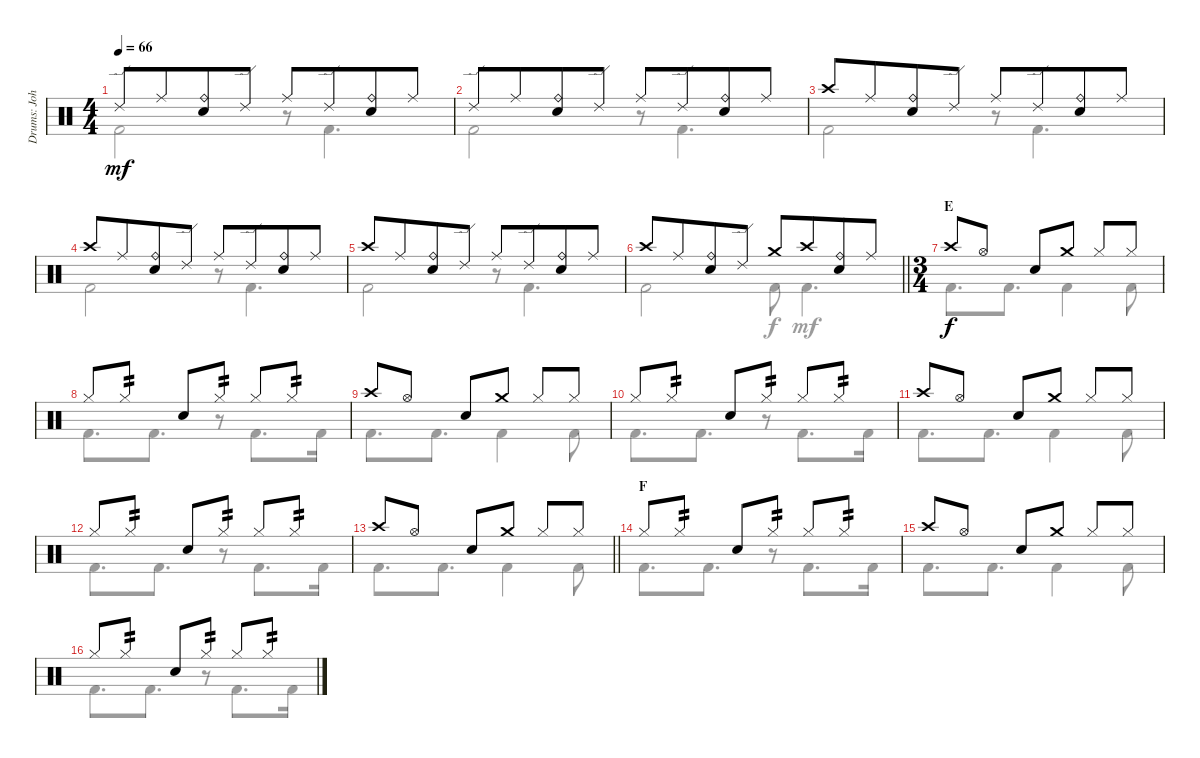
\track ("Drums: John" "Drums: Joh") {instrument percussion}
\staff {score}
\articulation defaults
\voice
\ts (4 4)
\tempo 66
\clef neutral
\ks c "Ride (edge) 2".8{dy mf} "Ride (middle)".8{beam merge}
("Ride (bell)" "Electric Snare (hit)").8 "Ride (edge) 2".8 "Ride (middle)".8 "Ride (edge) 2".8{beam merge} ("Ride (bell)" "Electric Snare (hit)").8 "Ride (middle)".8 |
"Ride (edge) 2".8 "Ride (middle)".8{beam merge} ("Ride (bell)" "Electric Snare (hit)").8 "Ride (edge) 2".8 "Ride (middle)".8 "Ride (edge) 2".8{beam merge} ("Ride (bell)" "Electric Snare (hit)").8 "Ride (middle)".8 |
"Crash high (hit)".8 "Ride (middle)".8{beam merge} ("Ride (bell)" "Electric Snare (hit)").8 "Ride (edge) 2".8 "Ride (middle)".8 "Ride (edge) 2".8{beam merge} ("Ride (bell)" "Electric Snare (hit)").8 "Ride (middle)".8 |
"Crash high (hit)".8 "Ride (middle)".8{beam merge} ("Ride (bell)" "Electric Snare (hit)").8 "Ride (edge) 2".8 "Ride (middle)".8 "Ride (edge) 2".8{beam merge} ("Ride (bell)" "Electric Snare (hit)").8 "Ride (middle)".8 |
"Crash high (hit)".8 "Ride (middle)".8{beam merge} ("Ride (bell)" "Electric Snare (hit)").8 "Ride (edge) 2".8 "Ride (middle)".8 "Ride (edge) 2".8{beam merge} ("Ride (bell)" "Electric Snare (hit)").8 "Ride (middle)".8 |
\barLineRight lightlight "Crash high (hit)".8 "Ride (middle)".8{beam merge}
("Ride (bell)" "Electric Snare (hit)").8 "Ride (edge) 2".8 "Crash medium (hit)".8 "Crash high (hit)".8{beam merge} ("Ride (bell)" "Electric Snare (hit)").8 "Ride (middle)".8 |
\ts (3 4)
\section ("" "E")
"Crash high (hit)".8{dy f} "Hi-Hat (open)".8 "Snare (hit) 2".8 "Crash medium (hit)".8 "Hi-Hat (closed)".8 "Hi-Hat (closed)".8 |
"Hi-Hat (closed)".8 "Hi-Hat (closed)".8{tp 2} "Snare (hit) 2".8 "Hi-Hat (closed)".8{tp 2} "Hi-Hat (closed)".8 "Hi-Hat (closed)".8{tp 2} |
"Crash high (hit)".8 "Hi-Hat (open)".8 "Snare (hit) 2".8 "Crash medium (hit)".8 "Hi-Hat (closed)".8 "Hi-Hat (closed)".8 |
"Hi-Hat (closed)".8 "Hi-Hat (closed)".8{tp 2} "Snare (hit) 2".8 "Hi-Hat (closed)".8{tp 2} "Hi-Hat (closed)".8 "Hi-Hat (closed)".8{tp 2} |
"Crash high (hit)".8 "Hi-Hat (open)".8 "Snare (hit) 2".8 "Crash medium (hit)".8 "Hi-Hat (closed)".8 "Hi-Hat (closed)".8 |
"Hi-Hat (closed)".8 "Hi-Hat (closed)".8{tp 2} "Snare (hit) 2".8 "Hi-Hat (closed)".8{tp 2} "Hi-Hat (closed)".8 "Hi-Hat (closed)".8{tp 2} |
\barLineRight lightlight "Crash high (hit)".8 "Hi-Hat (open)".8 "Snare (hit) 2".8 "Crash medium (hit)".8 "Hi-Hat (closed)".8 "Hi-Hat (closed)".8
|
\section ("" "F")
"Hi-Hat (closed)".8 "Hi-Hat (closed)".8{tp 2} "Snare (hit) 2".8 "Hi-Hat (closed)".8{tp 2} "Hi-Hat (closed)".8 "Hi-Hat (closed)".8{tp 2} |
"Crash high (hit)".8 "Hi-Hat (open)".8 "Snare (hit) 2".8 "Crash medium (hit)".8 "Hi-Hat (closed)".8 "Hi-Hat (closed)".8 |
"Hi-Hat (closed)".8 "Hi-Hat (closed)".8{tp 2} "Snare (hit) 2".8 "Hi-Hat (closed)".8{tp 2} "Hi-Hat (closed)".8 "Hi-Hat (closed)".8{tp 2}
\voice
\clef neutral
\ottava regular
\simile none
\ks c "Kick (hit) 2".2{dy mf}
r.8 "Kick (hit) 2".4{d} |
"Kick (hit) 2".2 r.8 "Kick (hit) 2".4{d} |
"Kick (hit) 2".2 r.8 "Kick (hit) 2".4{d} |
"Kick (hit) 2".2 r.8 "Kick (hit) 2".4{d} |
"Kick (hit) 2".2 r.8 "Kick (hit) 2".4{d} |
\barLineRight lightlight "Kick (hit) 2".2 "Kick (hit) 2".8{dy f} "Kick (hit) 2".4{d dy mf}
|
"Kick (hit) 2".8{d dy f} "Kick (hit) 2".8{d} "Kick (hit) 2".4 "Kick (hit) 2".8 |
"Kick (hit) 2".8{d} "Kick (hit) 2".8{d} r.8 "Kick (hit) 2".8{d} "Kick (hit) 2".16 |
"Kick (hit) 2".8{d} "Kick (hit) 2".8{d} "Kick (hit) 2".4 "Kick (hit) 2".8 |
"Kick (hit) 2".8{d} "Kick (hit) 2".8{d} r.8 "Kick (hit) 2".8{d} "Kick (hit) 2".16 |
"Kick (hit) 2".8{d} "Kick (hit) 2".8{d} "Kick (hit) 2".4 "Kick (hit) 2".8 |
"Kick (hit) 2".8{d} "Kick (hit) 2".8{d} r.8 "Kick (hit) 2".8{d} "Kick (hit) 2".16 |
\barLineRight lightlight "Kick (hit) 2".8{d} "Kick (hit) 2".8{d} "Kick (hit) 2".4 "Kick (hit) 2".8
|
"Kick (hit) 2".8{d} "Kick (hit) 2".8{d} r.8 "Kick (hit) 2".8{d} "Kick (hit) 2".16 |
"Kick (hit) 2".8{d} "Kick (hit) 2".8{d} "Kick (hit) 2".4 "Kick (hit) 2".8 |
"Kick (hit) 2".8{d} "Kick (hit) 2".8{d} r.8 "Kick (hit) 2".8{d} "Kick (hit) 2".16
